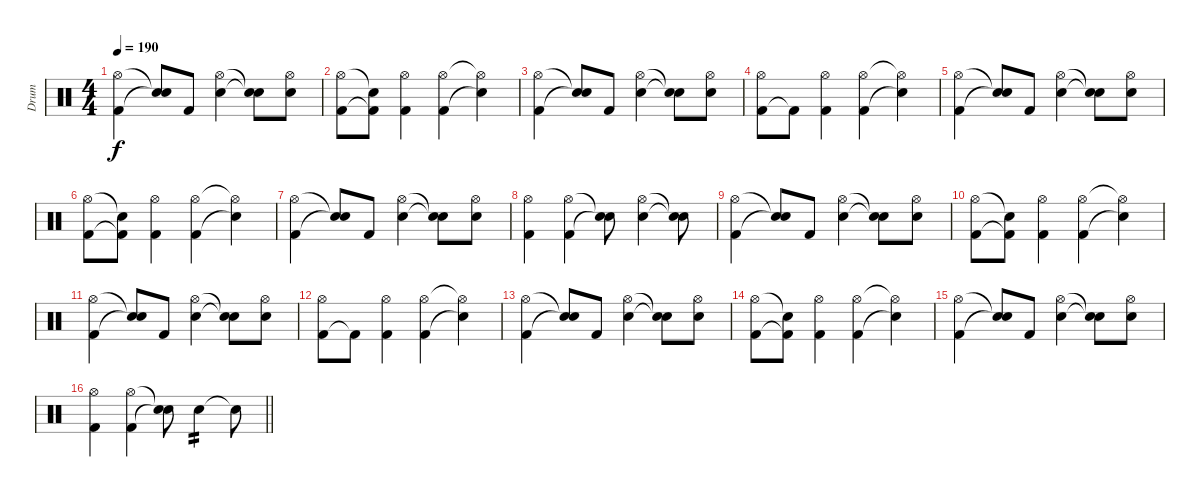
\track ("Drum" "Drum") {instrument percussion}
\staff {score}
\articulation defaults
\ts (4 4)
\section ("" "")
\tempo 190
\clef neutral
\ks c
("Kick (hit) 2" "Hi-Hat (open)").4{dy f} ("Snare (hit)"{t} "Snare (hit)"{t}).8 "Kick (hit) 2".8 ("Snare (hit) 2" "Hi-Hat (open)").4 ("Snare (hit)"{t} "Snare (hit)"{t}).8 ("Snare (hit) 2" "Hi-Hat (open)").8 |
("Kick (hit) 2" "Hi-Hat (open)").8 ("Kick (hit) 2"{t} "Snare (hit)"{t}).8 ("Kick (hit) 2" "Hi-Hat (open)").4 ("Kick (hit) 2" "Hi-Hat (open)").4 ("Snare (hit) 2"{t} "Hi-Hat (open)"{t}).4 |
("Kick (hit) 2" "Hi-Hat (open)").4 ("Snare (hit)"{t} "Snare (hit)"{t}).8 "Kick (hit) 2".8 ("Snare (hit) 2" "Hi-Hat (open)").4 ("Snare (hit)"{t} "Snare (hit)"{t}).8 ("Snare (hit) 2" "Hi-Hat (open)").8 |
("Kick (hit) 2" "Hi-Hat (open)").8 "Kick (hit) 2"{t}.8 ("Kick (hit) 2" "Hi-Hat (open)").4 ("Kick (hit) 2" "Hi-Hat (open)").4 ("Snare (hit)"{t} "Hi-Hat (open)"{t}).4 |
("Kick (hit) 2" "Hi-Hat (open)").4 ("Snare (hit)"{t} "Snare (hit)"{t}).8 "Kick (hit) 2".8 ("Snare (hit) 2" "Hi-Hat (open)").4 ("Snare (hit)"{t} "Snare (hit)"{t}).8 ("Snare (hit) 2" "Hi-Hat (open)").8 |
("Kick (hit) 2" "Hi-Hat (open)").8 ("Kick (hit) 2"{t} "Snare (hit)"{t}).8 ("Kick (hit) 2" "Hi-Hat (open)").4 ("Kick (hit) 2" "Hi-Hat (open)").4 ("Snare (hit)"{t} "Hi-Hat (open)"{t}).4 |
("Kick (hit) 2" "Hi-Hat (open)").4 ("Snare (hit)"{t} "Snare (hit)"{t}).8 "Kick (hit) 2".8 ("Snare (hit) 2" "Hi-Hat (open)").4 ("Snare (hit)"{t} "Snare (hit)"{t}).8 ("Snare (hit) 2" "Hi-Hat (open)").8 |
("Kick (hit) 2" "Hi-Hat (open)").4 ("Kick (hit) 2" "Hi-Hat (open)").4 ("Snare (hit) 2"{t} "Snare (hit)"{t}).8 ("Snare (hit) 2" "Hi-Hat (open)").4 ("Snare (hit)"{t} "Snare (hit)"{t}).8 |
("Kick (hit) 2" "Hi-Hat (open)").4 ("Snare (hit)"{t} "Snare (hit)"{t}).8 "Kick (hit) 2".8 ("Snare (hit) 2" "Hi-Hat (open)").4 ("Snare (hit)"{t} "Snare (hit)"{t}).8 ("Snare (hit) 2" "Hi-Hat (open)").8 |
("Kick (hit) 2" "Hi-Hat (open)").8 ("Kick (hit) 2"{t} "Snare (hit)"{t}).8 ("Kick (hit) 2" "Hi-Hat (open)").4 ("Kick (hit) 2" "Hi-Hat (open)").4 ("Snare (hit) 2"{t} "Hi-Hat (open)"{t}).4 |
("Kick (hit) 2" "Hi-Hat (open)").4 ("Snare (hit)"{t} "Snare (hit)"{t}).8 "Kick (hit) 2".8 ("Snare (hit) 2" "Hi-Hat (open)").4 ("Snare (hit)"{t} "Snare (hit)"{t}).8 ("Snare (hit) 2" "Hi-Hat (open)").8 |
("Kick (hit) 2" "Hi-Hat (open)").8 "Kick (hit) 2"{t}.8 ("Kick (hit) 2" "Hi-Hat (open)").4 ("Kick (hit) 2" "Hi-Hat (open)").4 ("Snare (hit)"{t} "Hi-Hat (open)"{t}).4 |
("Kick (hit) 2" "Hi-Hat (open)").4 ("Snare (hit)"{t} "Snare (hit)"{t}).8 "Kick (hit) 2".8 ("Snare (hit) 2" "Hi-Hat (open)").4 ("Snare (hit)"{t} "Snare (hit)"{t}).8 ("Snare (hit) 2" "Hi-Hat (open)").8 |
("Kick (hit) 2" "Hi-Hat (open)").8 ("Kick (hit) 2"{t} "Snare (hit)"{t}).8 ("Kick (hit) 2" "Hi-Hat (open)").4 ("Kick (hit) 2" "Hi-Hat (open)").4 ("Snare (hit)"{t} "Hi-Hat (open)"{t}).4 |
("Kick (hit) 2" "Hi-Hat (open)").4 ("Snare (hit)"{t} "Snare (hit)"{t}).8 "Kick (hit) 2".8 ("Snare (hit) 2" "Hi-Hat (open)").4 ("Snare (hit)"{t} "Snare (hit)"{t}).8 ("Snare (hit) 2" "Hi-Hat (open)").8 |
\barLineRight lightlight
("Kick (hit) 2" "Hi-Hat (open)").4 ("Kick (hit) 2" "Hi-Hat (open)").4 ("Snare (hit) 2"{t} "Snare (hit)"{t}).8 "Snare (hit) 2".4{tp 2} "Snare (hit)"{t}.8
